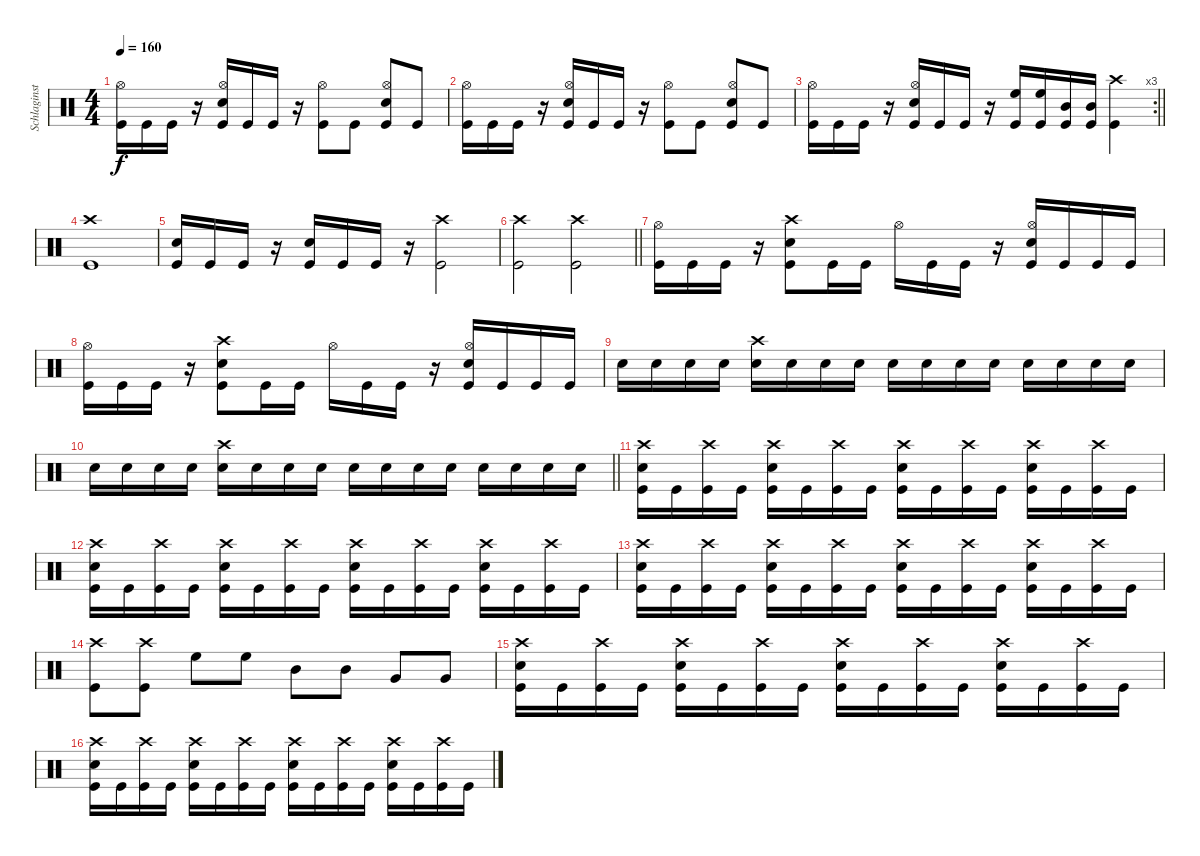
\track ("Schlaginstrumente - Auswahl" "Schlaginst") {solo instrument percussion}
\staff {score}
\articulation defaults
\ts (4 4)
\tempo 160
\clef neutral
\ks c
("Kick (hit)" "Hi-Hat (open)").16{dy f} "Kick (hit)".16 "Kick (hit)".16 r.16 ("Kick (hit)" "Hi-Hat (open)" "Electric Snare (hit)").16 "Kick (hit)".16 "Kick (hit)".16 r.16 ("Kick (hit)" "Hi-Hat (open)").8 "Kick (hit)".8 ("Kick (hit)" "Hi-Hat (open)" "Electric Snare (hit)").8 "Kick (hit)".8 |
("Kick (hit)" "Hi-Hat (open)").16 "Kick (hit)".16 "Kick (hit)".16 r.16 ("Kick (hit)" "Hi-Hat (open)" "Electric Snare (hit)").16 "Kick (hit)".16 "Kick (hit)".16 r.16 ("Kick (hit)" "Hi-Hat (open)").8 "Kick (hit)".8 ("Kick (hit)" "Hi-Hat (open)" "Electric Snare (hit)").8 "Kick (hit)".8 |
\rc 3
\barLineRight lightlight
("Kick (hit)" "Hi-Hat (open)").16 "Kick (hit)".16 "Kick (hit)".16 r.16 ("Kick (hit)" "Hi-Hat (open)" "Electric Snare (hit)").16 "Kick (hit)".16 "Kick (hit)".16 r.16 ("Kick (hit)" "High Floor Tom (hit)").16 ("Kick (hit)" "High Floor Tom (hit)").16 ("Kick (hit)" "Mid Tom (hit)").16 ("Kick (hit)" "Mid Tom (hit)").16 ("Kick (hit)" "Crash high (hit)").4 |
("Crash high (hit)" "Kick (hit)").1 |
("Kick (hit)" "Electric Snare (hit)").16 "Kick (hit)".16 "Kick (hit)".16 r.16 ("Kick (hit)" "Electric Snare (hit)").16 "Kick (hit)".16 "Kick (hit)".16 r.16 ("Kick (hit)" "Crash high (hit)").2 |
\barLineRight lightlight
("Kick (hit)" "Crash high (hit)").2 ("Kick (hit)" "Crash high (hit)").2 |
("Kick (hit)" "Hi-Hat (open)").16 "Kick (hit)".16 "Kick (hit)".16 r.16 ("Kick (hit)" "Crash high (hit)" "Electric Snare (hit)").8 "Kick (hit)".16 "Kick (hit)".16 "Hi-Hat (open)".16 "Kick (hit)".16 "Kick (hit)".16 r.16 ("Kick (hit)" "Hi-Hat (open)" "Electric Snare (hit)").16 "Kick (hit)".16 "Kick (hit)".16 "Kick (hit)".16 |
("Kick (hit)" "Hi-Hat (open)").16 "Kick (hit)".16 "Kick (hit)".16 r.16 ("Kick (hit)" "Crash high (hit)" "Electric Snare (hit)").8 "Kick (hit)".16 "Kick (hit)".16 "Hi-Hat (open)".16 "Kick (hit)".16 "Kick (hit)".16 r.16 ("Kick (hit)" "Hi-Hat (open)" "Electric Snare (hit)").16 "Kick (hit)".16 "Kick (hit)".16 "Kick (hit)".16 |
"Electric Snare (hit)".16 "Electric Snare (hit)".16 "Electric Snare (hit)".16 "Electric Snare (hit)".16 ("Electric Snare (hit)" "Crash high (hit)").16 "Electric Snare (hit)".16 "Electric Snare (hit)".16 "Electric Snare (hit)".16 "Electric Snare (hit)".16 "Electric Snare (hit)".16 "Electric Snare (hit)".16 "Electric Snare (hit)".16 "Electric Snare (hit)".16 "Electric Snare (hit)".16 "Electric Snare (hit)".16 "Electric Snare (hit)".16 |
\barLineRight lightlight "Electric Snare (hit)".16 "Electric Snare (hit)".16 "Electric Snare (hit)".16 "Electric Snare (hit)".16
("Electric Snare (hit)" "Crash high (hit)").16 "Electric Snare (hit)".16 "Electric Snare (hit)".16 "Electric Snare (hit)".16 "Electric Snare (hit)".16 "Electric Snare (hit)".16 "Electric Snare (hit)".16 "Electric Snare (hit)".16 "Electric Snare (hit)".16 "Electric Snare (hit)".16 "Electric Snare (hit)".16 "Electric Snare (hit)".16 |
("Kick (hit)" "Crash high (hit)" "Electric Snare (hit)").16 "Kick (hit)".16 ("Kick (hit)" "Crash high (hit)").16 "Kick (hit)".16 ("Kick (hit)" "Crash high (hit)" "Electric Snare (hit)").16 "Kick (hit)".16 ("Kick (hit)" "Crash high (hit)").16 "Kick (hit)".16 ("Kick (hit)" "Crash high (hit)" "Electric Snare (hit)").16 "Kick (hit)".16 ("Kick (hit)" "Crash high (hit)").16 "Kick (hit)".16 ("Kick (hit)" "Crash high (hit)" "Electric Snare (hit)").16 "Kick (hit)".16 ("Kick (hit)" "Crash high (hit)").16 "Kick (hit)".16 |
("Kick (hit)" "Crash high (hit)" "Electric Snare (hit)").16 "Kick (hit)".16 ("Kick (hit)" "Crash high (hit)").16 "Kick (hit)".16 ("Kick (hit)" "Crash high (hit)" "Electric Snare (hit)").16 "Kick (hit)".16 ("Kick (hit)" "Crash high (hit)").16 "Kick (hit)".16 ("Kick (hit)" "Crash high (hit)" "Electric Snare (hit)").16 "Kick (hit)".16 ("Kick (hit)" "Crash high (hit)").16 "Kick (hit)".16 ("Kick (hit)" "Crash high (hit)" "Electric Snare (hit)").16 "Kick (hit)".16 ("Kick (hit)" "Crash high (hit)").16 "Kick (hit)".16 |
("Kick (hit)" "Crash high (hit)" "Electric Snare (hit)").16 "Kick (hit)".16 ("Kick (hit)" "Crash high (hit)").16 "Kick (hit)".16 ("Kick (hit)" "Crash high (hit)" "Electric Snare (hit)").16 "Kick (hit)".16 ("Kick (hit)" "Crash high (hit)").16 "Kick (hit)".16 ("Kick (hit)" "Crash high (hit)" "Electric Snare (hit)").16 "Kick (hit)".16 ("Kick (hit)" "Crash high (hit)").16 "Kick (hit)".16 ("Kick (hit)" "Crash high (hit)" "Electric Snare (hit)").16 "Kick (hit)".16 ("Kick (hit)" "Crash high (hit)").16 "Kick (hit)".16 |
("Crash high (hit)" "Kick (hit)").8 ("Crash high (hit)" "Kick (hit)").8 "High Floor Tom (hit)".8 "High Floor Tom (hit)".8 "Mid Tom (hit)".8 "Mid Tom (hit)".8 "Very Low Tom (hit)".8 "Very Low Tom (hit)".8 |
("Kick (hit)" "Crash high (hit)" "Electric Snare (hit)").16 "Kick (hit)".16 ("Kick (hit)" "Crash high (hit)").16 "Kick (hit)".16 ("Kick (hit)" "Crash high (hit)" "Electric Snare (hit)").16 "Kick (hit)".16 ("Kick (hit)" "Crash high (hit)").16 "Kick (hit)".16 ("Kick (hit)" "Crash high (hit)" "Electric Snare (hit)").16 "Kick (hit)".16 ("Kick (hit)" "Crash high (hit)").16 "Kick (hit)".16 ("Kick (hit)" "Crash high (hit)" "Electric Snare (hit)").16 "Kick (hit)".16 ("Kick (hit)" "Crash high (hit)").16 "Kick (hit)".16 |
("Kick (hit)" "Crash high (hit)" "Electric Snare (hit)").16 "Kick (hit)".16 ("Kick (hit)" "Crash high (hit)").16 "Kick (hit)".16 ("Kick (hit)" "Crash high (hit)" "Electric Snare (hit)").16 "Kick (hit)".16 ("Kick (hit)" "Crash high (hit)").16 "Kick (hit)".16 ("Kick (hit)" "Crash high (hit)" "Electric Snare (hit)").16 "Kick (hit)".16 ("Kick (hit)" "Crash high (hit)").16 "Kick (hit)".16 ("Kick (hit)" "Crash high (hit)" "Electric Snare (hit)").16 "Kick (hit)".16 ("Kick (hit)" "Crash high (hit)").16 "Kick (hit)".16
